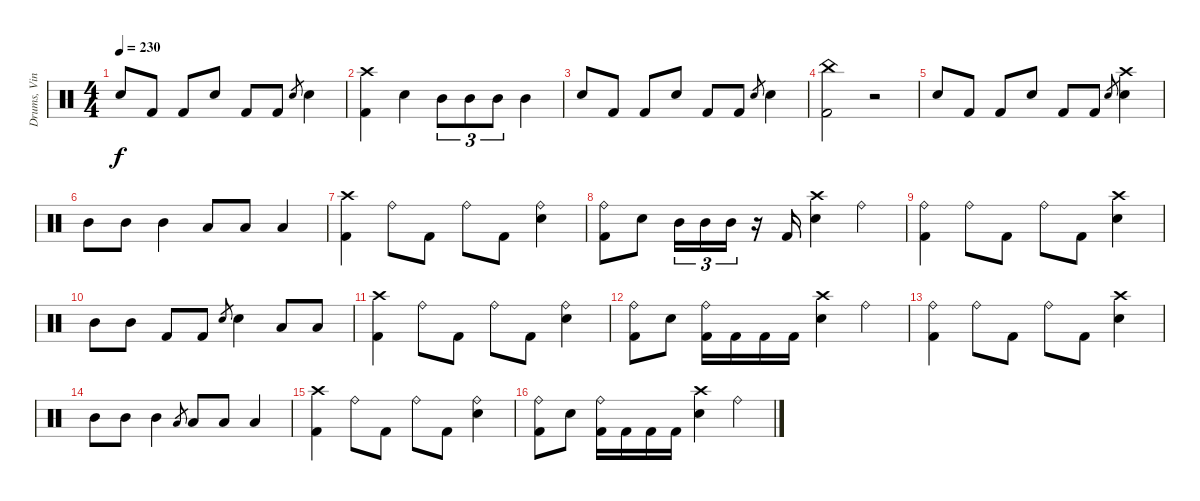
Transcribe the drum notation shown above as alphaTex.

\track ("Drums, Vinnie" "Drums, Vin") {instrument percussion}
\staff {score}
\articulation defaults
\ts (4 4)
\tempo 230
\clef neutral
\ks c "Electric Snare (hit)".8{dy f} "Kick (hit) 2".8 "Kick (hit) 2".8 "Electric Snare (hit)".8 "Kick (hit) 2".8 "Kick (hit) 2".8 "Electric Snare (hit)".8{gr} "Electric Snare (hit)".4
|
("Crash high (hit)" "Kick (hit) 2").4 "Electric Snare (hit)".4 "Mid Tom (hit)".8{tu (3 2)} "Mid Tom (hit)".8{tu (3 2)} "Mid Tom (hit)".8{tu (3 2)} "Mid Tom (hit)".4 |
"Electric Snare (hit)".8 "Kick (hit) 2".8 "Kick (hit) 2".8 "Electric Snare (hit)".8 "Kick (hit) 2".8 "Kick (hit) 2".8 "Electric Snare (hit)".8{gr} "Electric Snare (hit)".4 |
("China (hit)" "Kick (hit) 2").2 r.2 |
"Electric Snare (hit)".8 "Kick (hit) 2".8 "Kick (hit) 2".8 "Electric Snare (hit)".8 "Kick (hit) 2".8 "Kick (hit) 2".8 "Electric Snare (hit)".8{gr} ("Crash high (hit)" "Electric Snare (hit)").4 |
"Mid Tom (hit)".8 "Mid Tom (hit)".8 "Mid Tom (hit)".4 "Low Tom (hit)".8 "Low Tom (hit)".8 "Low Tom (hit)".4 |
("Crash high (hit)" "Kick (hit) 2").4 "Ride (bell)".8 "Kick (hit) 2".8 "Ride (bell)".8 "Kick (hit) 2".8 ("Ride (bell)" "Electric Snare (hit)").4 |
("Ride (bell)" "Kick (hit) 2").8 "Electric Snare (hit)".8 "Mid Tom (hit)".16{tu (3 2)} "Mid Tom (hit)".16{tu (3 2)} "Mid Tom (hit)".16{tu (3 2)} r.16 "Kick (hit) 2".16 ("Crash high (hit)" "Electric Snare (hit)").4 "Ride (bell)".4 |
("Ride (bell)" "Kick (hit) 2").4 "Ride (bell)".8 "Kick (hit) 2".8 "Ride (bell)".8 "Kick (hit) 2".8 ("Crash high (hit)" "Electric Snare (hit)").4 |
"Mid Tom (hit)".8 "Mid Tom (hit)".8 "Kick (hit) 2".8 "Kick (hit) 2".8 "Electric Snare (hit)".8{gr} "Electric Snare (hit)".4 "Low Tom (hit)".8 "Low Tom (hit)".8 |
("Crash high (hit)" "Kick (hit) 2").4 "Ride (bell)".8 "Kick (hit) 2".8 "Ride (bell)".8 "Kick (hit) 2".8 ("Ride (bell)" "Electric Snare (hit)").4 |
("Ride (bell)" "Kick (hit) 2").8 "Electric Snare (hit)".8 ("Ride (bell)" "Kick (hit) 2").16 "Kick (hit) 2".16 "Kick (hit) 2".16 "Kick (hit) 2".16 ("Crash high (hit)" "Electric Snare (hit)").4 "Ride (bell)".4 |
("Ride (bell)" "Kick (hit) 2").4 "Ride (bell)".8 "Kick (hit) 2".8 "Ride (bell)".8 "Kick (hit) 2".8 ("Crash high (hit)" "Electric Snare (hit)").4 |
"Mid Tom (hit)".8 "Mid Tom (hit)".8 "Mid Tom (hit)".4 "Low Tom (hit)".8{gr} "Low Tom (hit)".8 "Low Tom (hit)".8 "Low Tom (hit)".4 |
("Crash high (hit)" "Kick (hit) 2").4 "Ride (bell)".8 "Kick (hit) 2".8 "Ride (bell)".8 "Kick (hit) 2".8 ("Ride (bell)" "Electric Snare (hit)").4 |
("Ride (bell)" "Kick (hit) 2").8 "Electric Snare (hit)".8 ("Ride (bell)" "Kick (hit) 2").16 "Kick (hit) 2".16 "Kick (hit) 2".16 "Kick (hit) 2".16 ("Crash high (hit)" "Electric Snare (hit)").4 "Ride (bell)".4
